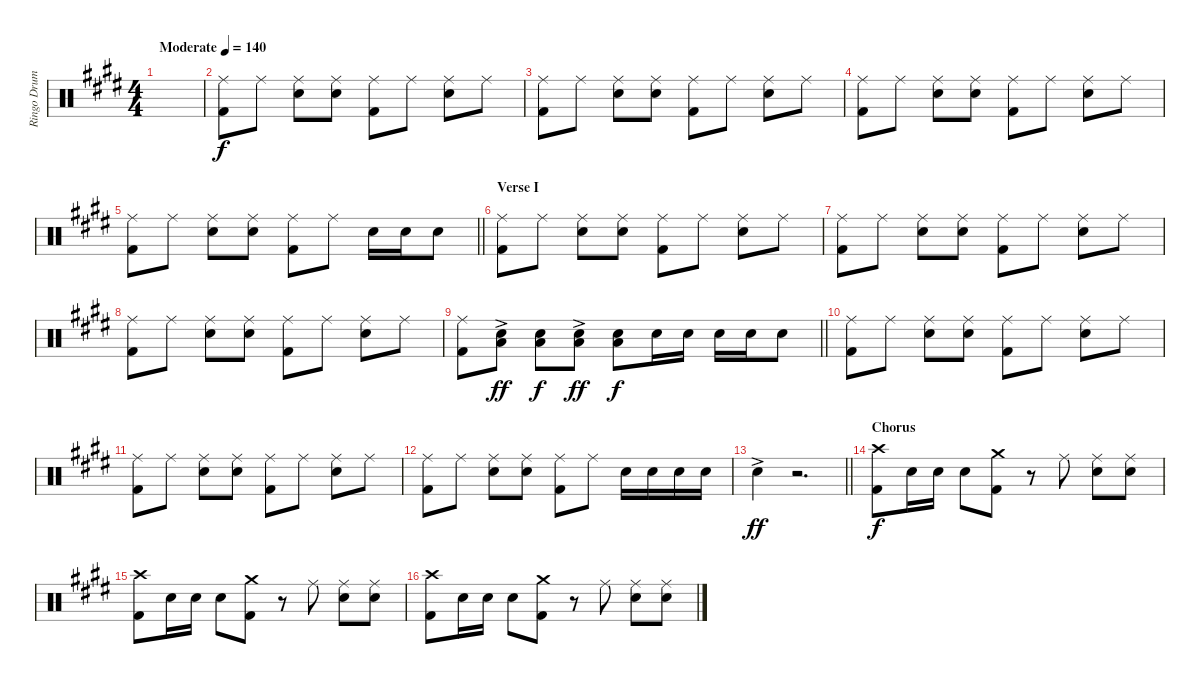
\track ("Ringo Drums" "Ringo Drum") {instrument percussion}
\staff {score}
\articulation defaults
\ts (4 4)
\tempo (140 "Moderate")
\clef neutral
\ks e
|
("Ride (middle)" "Kick (hit) 2").8 "Ride (middle)".8 ("Ride (middle)" "Snare (hit) 2").8 ("Ride (middle)" "Snare (hit) 2").8 ("Ride (middle)" "Kick (hit) 2").8 "Ride (middle)".8 ("Ride (middle)" "Snare (hit) 2").8 "Ride (middle)".8 |
("Ride (middle)" "Kick (hit) 2").8 "Ride (middle)".8 ("Ride (middle)" "Snare (hit) 2").8 ("Ride (middle)" "Snare (hit) 2").8 ("Ride (middle)" "Kick (hit) 2").8 "Ride (middle)".8 ("Ride (middle)" "Snare (hit) 2").8 "Ride (middle)".8 |
("Ride (middle)" "Kick (hit) 2").8 "Ride (middle)".8 ("Ride (middle)" "Snare (hit) 2").8 ("Ride (middle)" "Snare (hit) 2").8 ("Ride (middle)" "Kick (hit) 2").8 "Ride (middle)".8 ("Ride (middle)" "Snare (hit) 2").8 "Ride (middle)".8 |
\barLineRight lightlight
("Ride (middle)" "Kick (hit) 2").8 "Ride (middle)".8 ("Ride (middle)" "Snare (hit) 2").8 ("Ride (middle)" "Snare (hit) 2").8 ("Ride (middle)" "Kick (hit) 2").8 "Ride (middle)".8 "Snare (hit) 2".16 "Electric Snare (hit)".16 "Snare (hit) 2".8 |
\section ("" "Verse I")
("Ride (middle)" "Kick (hit) 2").8 "Ride (middle)".8 ("Ride (middle)" "Snare (hit) 2").8 ("Ride (middle)" "Snare (hit) 2").8 ("Ride (middle)" "Kick (hit) 2").8 "Ride (middle)".8 ("Ride (middle)" "Snare (hit) 2").8 "Ride (middle)".8 |
("Ride (middle)" "Kick (hit) 2").8 "Ride (middle)".8 ("Ride (middle)" "Snare (hit) 2").8 ("Ride (middle)" "Snare (hit) 2").8 ("Ride (middle)" "Kick (hit) 2").8 "Ride (middle)".8 ("Ride (middle)" "Snare (hit) 2").8 "Ride (middle)".8 |
("Ride (middle)" "Kick (hit) 2").8 "Ride (middle)".8 ("Ride (middle)" "Snare (hit) 2").8 ("Ride (middle)" "Snare (hit) 2").8 ("Ride (middle)" "Kick (hit) 2").8 "Ride (middle)".8 ("Ride (middle)" "Snare (hit) 2").8 "Ride (middle)".8 |
\barLineRight lightlight
("Ride (middle)" "Kick (hit) 2").8 ("Low Tom (hit)"{ac} "Snare (hit) 2"{ac}).8{dy ff} ("Low Tom (hit)" "Snare (hit) 2").8{dy f} ("Low Tom (hit)"{ac} "Snare (hit) 2"{ac}).8{dy ff} ("Low Tom (hit)" "Snare (hit) 2").8{dy f} "Snare (hit) 2".16 "Electric Snare (hit)".16 "Snare (hit) 2".16 "Electric Snare (hit)".16 "Snare (hit) 2".8 |
("Ride (middle)" "Kick (hit) 2").8 "Ride (middle)".8 ("Ride (middle)" "Snare (hit) 2").8 ("Ride (middle)" "Snare (hit) 2").8 ("Ride (middle)" "Kick (hit) 2").8 "Ride (middle)".8 ("Ride (middle)" "Snare (hit) 2").8 "Ride (middle)".8 |
("Ride (middle)" "Kick (hit) 2").8 "Ride (middle)".8 ("Ride (middle)" "Snare (hit) 2").8 ("Ride (middle)" "Snare (hit) 2").8 ("Ride (middle)" "Kick (hit) 2").8 "Ride (middle)".8 ("Ride (middle)" "Snare (hit) 2").8 "Ride (middle)".8 |
("Ride (middle)" "Kick (hit) 2").8 "Ride (middle)".8 ("Ride (middle)" "Snare (hit) 2").8 ("Ride (middle)" "Snare (hit) 2").8 ("Ride (middle)" "Kick (hit) 2").8 "Ride (middle)".8 "Snare (hit) 2".16 "Electric Snare (hit)".16 "Snare (hit) 2".16 "Electric Snare (hit)".16 |
\barLineRight lightlight "Snare (hit) 2"{ac}.4{dy ff}
r.2{d} |
\section ("" "Chorus")
("Crash high (hit)" "Kick (hit) 2").8{dy f} "Snare (hit) 2".16 "Electric Snare (hit)".16 "Snare (hit) 2".8 ("Crash medium (hit)" "Kick (hit) 2").8 r.8 "Ride (middle)".8 ("Ride (middle)" "Snare (hit) 2").8 ("Ride (middle)" "Snare (hit) 2").8 |
("Crash high (hit)" "Kick (hit) 2").8 "Snare (hit) 2".16 "Electric Snare (hit)".16 "Snare (hit) 2".8 ("Crash medium (hit)" "Kick (hit) 2").8 r.8 "Ride (middle)".8 ("Ride (middle)" "Snare (hit) 2").8 ("Ride (middle)" "Snare (hit) 2").8 |
("Crash high (hit)" "Kick (hit) 2").8 "Snare (hit) 2".16 "Electric Snare (hit)".16 "Snare (hit) 2".8 ("Crash medium (hit)" "Kick (hit) 2").8 r.8 "Ride (middle)".8 ("Ride (middle)" "Snare (hit) 2").8 ("Ride (middle)" "Snare (hit) 2").8
